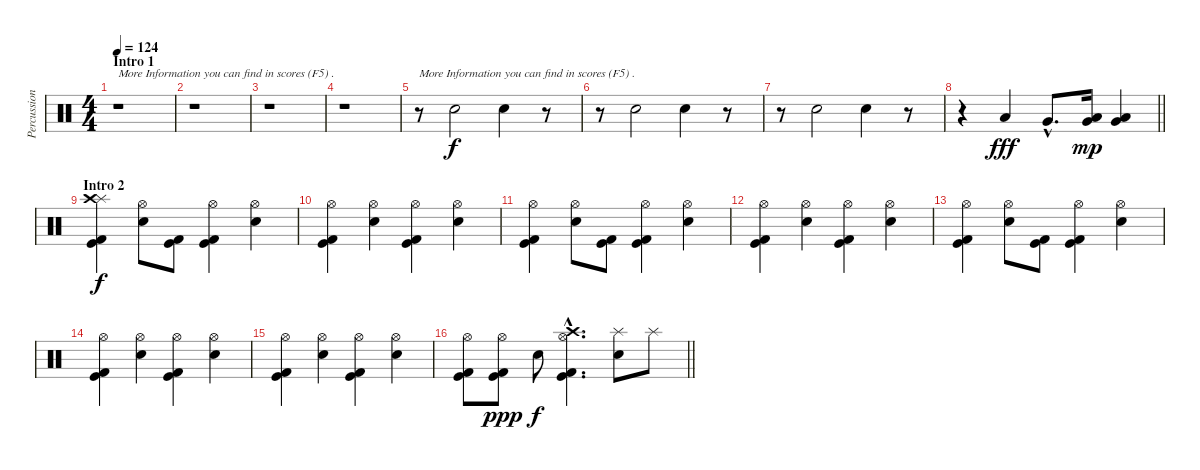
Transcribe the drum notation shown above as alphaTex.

\track ("Percussion" "Percussion") {instrument percussion}
\staff {score}
\articulation defaults
\ts (4 4)
\section ("" "Intro 1")
\tempo 124
\clef neutral
\ks c
r.1{txt "More Information you can find in scores (F5) ." dy f} |
r.1 |
r.1 |
r.1 |
r.8{txt "More Information you can find in scores (F5) ."} "Snare (hit) 2".2 "Snare (hit) 2".4 r.8 |
r.8 "Snare (hit) 2".2 "Snare (hit) 2".4 r.8 |
r.8 "Snare (hit) 2".2 "Snare (hit) 2".4 r.8 |
\barLineRight lightlight
r.4 "Low Tom (hit)".4{dy fff} "Very Low Tom (hit)"{hac}.8{d} ("Low Tom (hit)" "Very Low Tom (hit)").16{dy mp} ("Low Tom (hit)" "Very Low Tom (hit)").4 |
\section ("" "Intro 2")
("Splash (hit)" "Crash high (hit)" "Kick (hit)" "Kick (hit) 2").4{dy f} ("Hi-Hat (open)" "Snare (hit) 2").8 ("Kick (hit)" "Kick (hit) 2").8 ("Hi-Hat (open)" "Kick (hit)" "Kick (hit) 2").4 ("Hi-Hat (open)" "Snare (hit) 2").4 |
("Hi-Hat (open)" "Kick (hit)" "Kick (hit) 2").4 ("Hi-Hat (open)" "Snare (hit) 2").4 ("Hi-Hat (open)" "Kick (hit)" "Kick (hit) 2").4 ("Hi-Hat (open)" "Snare (hit) 2").4 |
("Hi-Hat (open)" "Kick (hit)" "Kick (hit) 2").4 ("Hi-Hat (open)" "Snare (hit) 2").8 ("Kick (hit)" "Kick (hit) 2").8 ("Hi-Hat (open)" "Kick (hit)" "Kick (hit) 2").4 ("Hi-Hat (open)" "Snare (hit) 2").4 |
("Hi-Hat (open)" "Kick (hit)" "Kick (hit) 2").4 ("Hi-Hat (open)" "Snare (hit) 2").4 ("Hi-Hat (open)" "Kick (hit)" "Kick (hit) 2").4 ("Hi-Hat (open)" "Snare (hit) 2").4 |
("Hi-Hat (open)" "Kick (hit)" "Kick (hit) 2").4 ("Hi-Hat (open)" "Snare (hit) 2").8 ("Kick (hit)" "Kick (hit) 2").8 ("Hi-Hat (open)" "Kick (hit)" "Kick (hit) 2").4 ("Hi-Hat (open)" "Snare (hit) 2").4 |
("Hi-Hat (open)" "Kick (hit)" "Kick (hit) 2").4 ("Hi-Hat (open)" "Snare (hit) 2").4 ("Hi-Hat (open)" "Kick (hit)" "Kick (hit) 2").4 ("Hi-Hat (open)" "Snare (hit) 2").4 |
("Hi-Hat (open)" "Kick (hit)" "Kick (hit) 2").4 ("Hi-Hat (open)" "Snare (hit) 2").4 ("Hi-Hat (open)" "Kick (hit)" "Kick (hit) 2").4 ("Hi-Hat (open)" "Snare (hit) 2").4 |
\barLineRight lightlight
("Hi-Hat (open)" "Kick (hit)" "Kick (hit) 2").8 ("Hi-Hat (open)" "Kick (hit) 2" "Kick (hit)").8{dy ppp} "Snare (hit) 2".8{dy f} ("Crash high (hit)"{hac} "Hi-Hat (open)"{hac} "Kick (hit)"{hac} "Kick (hit) 2"{hac}).4{d} ("Splash (hit)" "Snare (hit) 2").8 "Splash (hit)".8
